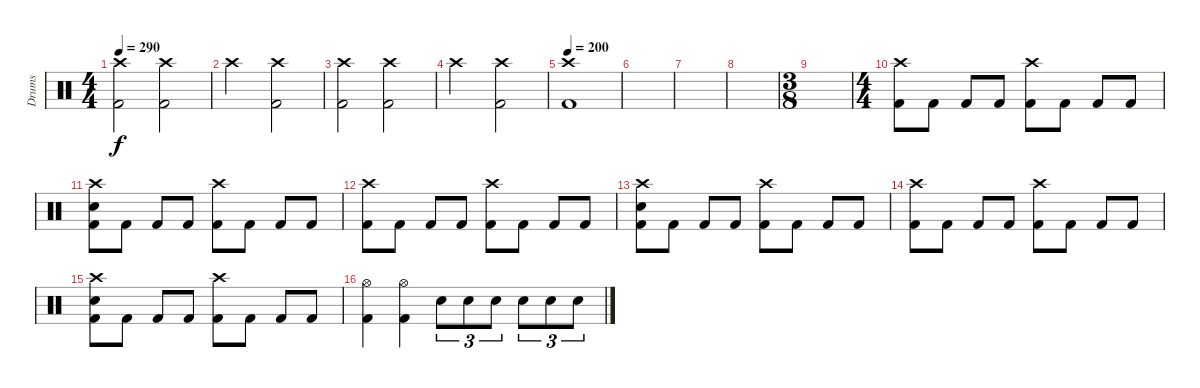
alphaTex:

\track ("Drums" "Drums") {instrument percussion}
\staff {score}
\articulation defaults
\ts (4 4)
\tempo 290
\clef neutral
\ks c
("Crash high (hit)" "Kick (hit) 2").2{dy f} ("Crash high (hit)" "Kick (hit) 2").2 |
"Crash high (hit)".2 ("Crash high (hit)" "Kick (hit) 2").2 |
("Crash high (hit)" "Kick (hit) 2").2 ("Crash high (hit)" "Kick (hit) 2").2 |
"Crash high (hit)".2 ("Crash high (hit)" "Kick (hit) 2").2 |
\tempo 200
("Crash high (hit)" "Kick (hit) 2").1 |
|
|
|
\ts (3 8)
|
\ts (4 4)
("Crash high (hit)" "Kick (hit) 2").8 "Kick (hit) 2".8 "Kick (hit) 2".8 "Kick (hit) 2".8 ("Crash high (hit)" "Kick (hit) 2").8 "Kick (hit) 2".8 "Kick (hit) 2".8 "Kick (hit) 2".8 |
("Crash high (hit)" "Snare (hit) 2" "Kick (hit) 2").8 "Kick (hit) 2".8 "Kick (hit) 2".8 "Kick (hit) 2".8 ("Crash high (hit)" "Kick (hit) 2").8 "Kick (hit) 2".8 "Kick (hit) 2".8 "Kick (hit) 2".8 |
("Crash high (hit)" "Kick (hit) 2").8 "Kick (hit) 2".8 "Kick (hit) 2".8 "Kick (hit) 2".8 ("Crash high (hit)" "Kick (hit) 2").8 "Kick (hit) 2".8 "Kick (hit) 2".8 "Kick (hit) 2".8 |
("Crash high (hit)" "Snare (hit) 2" "Kick (hit) 2").8 "Kick (hit) 2".8 "Kick (hit) 2".8 "Kick (hit) 2".8 ("Crash high (hit)" "Kick (hit) 2").8 "Kick (hit) 2".8 "Kick (hit) 2".8 "Kick (hit) 2".8 |
("Crash high (hit)" "Kick (hit) 2").8 "Kick (hit) 2".8 "Kick (hit) 2".8 "Kick (hit) 2".8 ("Crash high (hit)" "Kick (hit) 2").8 "Kick (hit) 2".8 "Kick (hit) 2".8 "Kick (hit) 2".8 |
("Crash high (hit)" "Snare (hit) 2" "Kick (hit) 2").8 "Kick (hit) 2".8 "Kick (hit) 2".8 "Kick (hit) 2".8 ("Crash high (hit)" "Kick (hit) 2").8 "Kick (hit) 2".8 "Kick (hit) 2".8 "Kick (hit) 2".8 |
("Hi-Hat (open)" "Kick (hit) 2").4 ("Hi-Hat (open)" "Kick (hit) 2").4 "Snare (hit) 2".8{tu (3 2)} "Snare (hit) 2".8{tu (3 2)} "Snare (hit) 2".8{tu (3 2)} "Snare (hit) 2".8{tu (3 2)} "Snare (hit) 2".8{tu (3 2)} "Snare (hit) 2".8{tu (3 2)}
